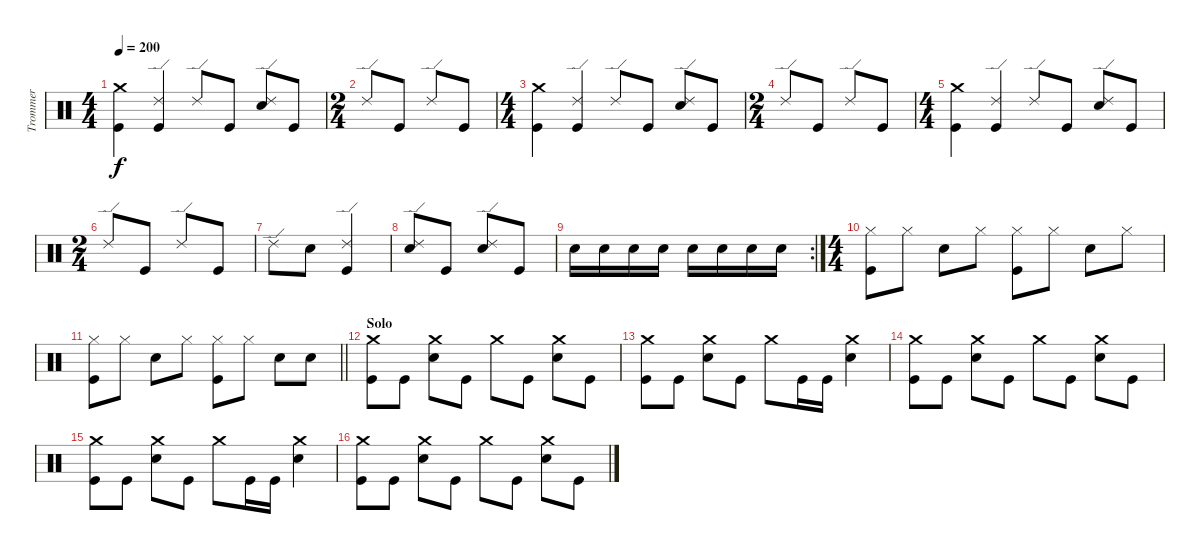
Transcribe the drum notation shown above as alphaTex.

\track ("Trommer" "Trommer") {instrument percussion}
\staff {score}
\articulation defaults
\ts (4 4)
\tempo 200
\clef neutral
\ks c
("Crash medium (hit)" "Kick (hit)").4{dy f} ("Ride (edge) 2" "Kick (hit)").4 "Ride (edge) 2".8 "Kick (hit)".8 ("Ride (edge) 2" "Snare (hit) 2").8 "Kick (hit)".8 |
\ts (2 4)
"Ride (edge) 2".8 "Kick (hit)".8 "Ride (edge) 2".8 "Kick (hit)".8 |
\ts (4 4)
("Crash medium (hit)" "Kick (hit)").4 ("Ride (edge) 2" "Kick (hit)").4 "Ride (edge) 2".8 "Kick (hit)".8 ("Ride (edge) 2" "Snare (hit) 2").8 "Kick (hit)".8 |
\ts (2 4)
"Ride (edge) 2".8 "Kick (hit)".8 "Ride (edge) 2".8 "Kick (hit)".8 |
\ts (4 4)
("Crash medium (hit)" "Kick (hit)").4 ("Ride (edge) 2" "Kick (hit)").4 "Ride (edge) 2".8 "Kick (hit)".8 ("Ride (edge) 2" "Snare (hit) 2").8 "Kick (hit)".8 |
\ts (2 4)
"Ride (edge) 2".8 "Kick (hit)".8 "Ride (edge) 2".8 "Kick (hit)".8 |
"Ride (edge) 2".8 "Snare (hit) 2".8 ("Ride (edge) 2" "Kick (hit)").4 |
("Ride (edge) 2" "Snare (hit) 2").8 "Kick (hit)".8 ("Ride (edge) 2" "Snare (hit) 2").8 "Kick (hit)".8 |
\rc 2 "Snare (hit) 2".16 "Snare (hit) 2".16 "Snare (hit) 2".16 "Snare (hit) 2".16 "Snare (hit) 2".16 "Snare (hit) 2".16 "Snare (hit) 2".16 "Snare (hit) 2".16
|
\ts (4 4)
("Hi-Hat (closed)" "Kick (hit)").8 "Hi-Hat (closed)".8 "Snare (hit) 2".8 "Hi-Hat (closed)".8 ("Hi-Hat (closed)" "Kick (hit)").8 "Hi-Hat (closed)".8 "Snare (hit) 2".8 "Hi-Hat (closed)".8 |
\barLineRight lightlight
("Hi-Hat (closed)" "Kick (hit)").8 "Hi-Hat (closed)".8 "Snare (hit) 2".8 "Hi-Hat (closed)".8 ("Hi-Hat (closed)" "Kick (hit)").8 "Hi-Hat (closed)".8 "Snare (hit) 2".8 "Snare (hit) 2".8 |
\section ("" "Solo")
("Crash medium (hit)" "Kick (hit)").8 "Kick (hit)".8 ("Crash medium (hit)" "Snare (hit) 2").8 "Kick (hit)".8 "Crash medium (hit)".8 "Kick (hit)".8 ("Crash medium (hit)" "Snare (hit) 2").8 "Kick (hit)".8 |
("Crash medium (hit)" "Kick (hit)").8 "Kick (hit)".8 ("Crash medium (hit)" "Snare (hit) 2").8 "Kick (hit)".8 "Crash medium (hit)".8 "Kick (hit)".16 "Kick (hit)".16 ("Crash medium (hit)" "Snare (hit) 2").4 |
("Crash medium (hit)" "Kick (hit)").8 "Kick (hit)".8 ("Crash medium (hit)" "Snare (hit) 2").8 "Kick (hit)".8 "Crash medium (hit)".8 "Kick (hit)".8 ("Crash medium (hit)" "Snare (hit) 2").8 "Kick (hit)".8 |
("Crash medium (hit)" "Kick (hit)").8 "Kick (hit)".8 ("Crash medium (hit)" "Snare (hit) 2").8 "Kick (hit)".8 "Crash medium (hit)".8 "Kick (hit)".16 "Kick (hit)".16 ("Crash medium (hit)" "Snare (hit) 2").4 |
("Crash medium (hit)" "Kick (hit)").8 "Kick (hit)".8 ("Crash medium (hit)" "Snare (hit) 2").8 "Kick (hit)".8 "Crash medium (hit)".8 "Kick (hit)".8 ("Crash medium (hit)" "Snare (hit) 2").8 "Kick (hit)".8
